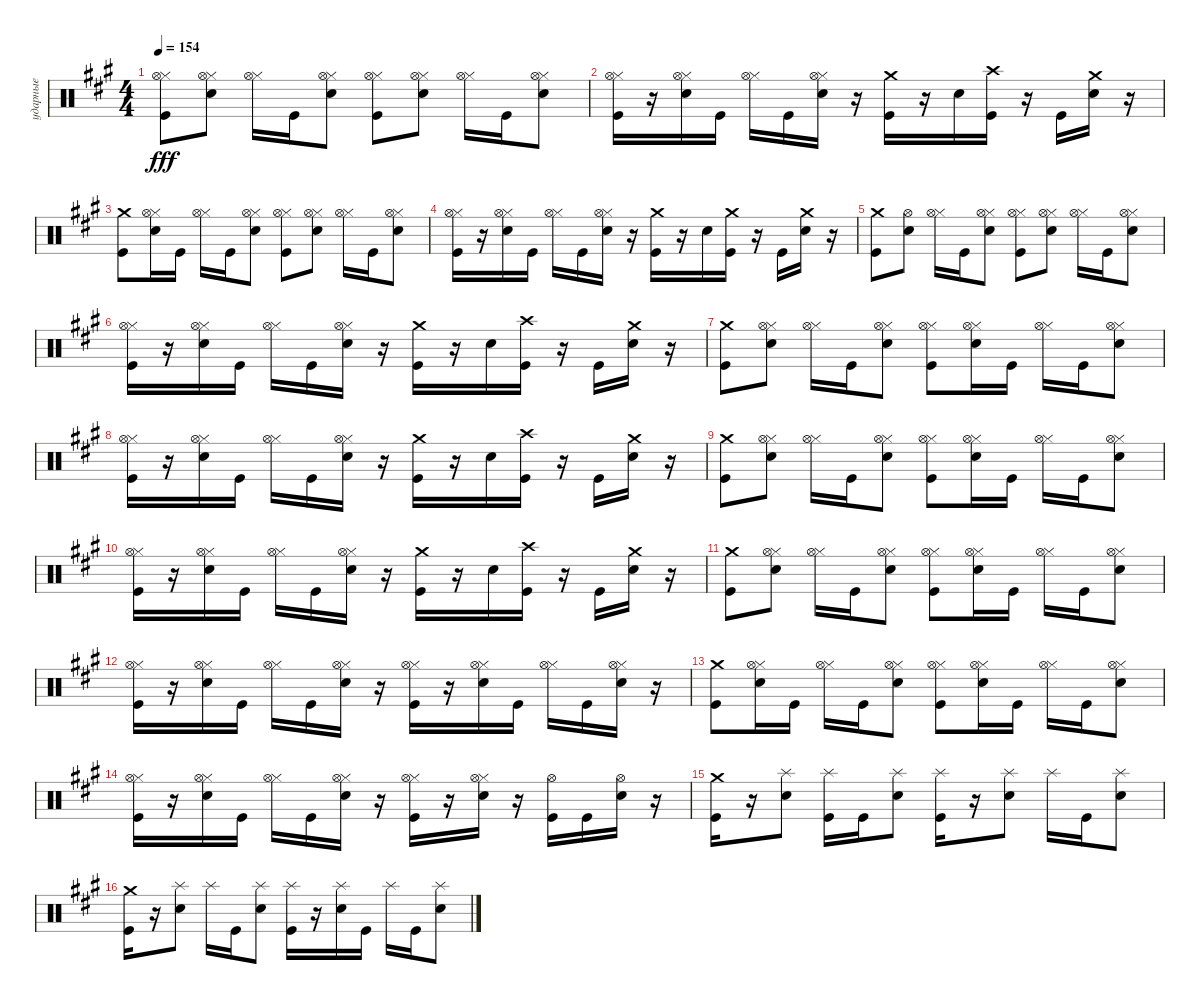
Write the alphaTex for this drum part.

\track ("ударные" "ударные") {instrument percussion}
\staff {score}
\articulation defaults
\ts (4 4)
\tempo 154
\clef neutral
\ks f#minor
("Hi-Hat (closed)" "Kick (hit)" "Hi-Hat (open)").8{dy fff} ("Snare (hit) 2" "Hi-Hat (closed)" "Hi-Hat (open)").8 ("Hi-Hat (closed)" "Hi-Hat (open)").16 "Kick (hit)".16 ("Snare (hit) 2" "Hi-Hat (closed)" "Hi-Hat (open)").8 ("Hi-Hat (closed)" "Kick (hit)" "Hi-Hat (open)").8 ("Snare (hit) 2" "Hi-Hat (closed)" "Hi-Hat (open)").8 ("Hi-Hat (closed)" "Hi-Hat (open)").16 "Kick (hit)".16 ("Snare (hit) 2" "Hi-Hat (closed)" "Hi-Hat (open)").8 |
("Hi-Hat (closed)" "Kick (hit)" "Hi-Hat (open)").16 r.16 ("Hi-Hat (closed)" "Snare (hit) 2" "Hi-Hat (open)").16 "Kick (hit)".16 ("Hi-Hat (closed)" "Hi-Hat (open)").16 "Kick (hit)".16 ("Hi-Hat (closed)" "Snare (hit) 2" "Hi-Hat (open)").16 r.16 ("Crash medium (hit)" "Kick (hit)").16 r.16 "Snare (hit) 2".16 ("Kick (hit)" "Crash high (hit)").16 r.16 "Kick (hit)".16 ("Crash medium (hit)" "Snare (hit) 2").16 r.16 |
("Crash medium (hit)" "Kick (hit)").8 ("Hi-Hat (closed)" "Snare (hit) 2" "Hi-Hat (open)").16 "Kick (hit)".16 ("Hi-Hat (closed)" "Hi-Hat (open)").16 "Kick (hit)".16 ("Hi-Hat (closed)" "Snare (hit) 2" "Hi-Hat (open)").8 ("Hi-Hat (closed)" "Kick (hit)" "Hi-Hat (open)").8 ("Snare (hit) 2" "Hi-Hat (closed)" "Hi-Hat (open)").8 ("Hi-Hat (closed)" "Hi-Hat (open)").16 "Kick (hit)".16 ("Hi-Hat (closed)" "Snare (hit) 2" "Hi-Hat (open)").8 |
("Hi-Hat (closed)" "Kick (hit)" "Hi-Hat (open)").16 r.16 ("Hi-Hat (closed)" "Snare (hit) 2" "Hi-Hat (open)").16 "Kick (hit)".16 ("Hi-Hat (closed)" "Hi-Hat (open)").16 "Kick (hit)".16 ("Hi-Hat (closed)" "Snare (hit) 2" "Hi-Hat (open)").16 r.16 ("Crash medium (hit)" "Kick (hit)").16 r.16 "Snare (hit) 2".16 ("Crash medium (hit)" "Kick (hit)").16 r.16 "Kick (hit)".16 ("Crash medium (hit)" "Snare (hit) 2").16 r.16 |
("Crash medium (hit)" "Kick (hit)").8 ("Snare (hit) 2" "Hi-Hat (open)").8 ("Hi-Hat (closed)" "Hi-Hat (open)").16 "Kick (hit)".16 ("Snare (hit) 2" "Hi-Hat (closed)" "Hi-Hat (open)").8 ("Hi-Hat (closed)" "Kick (hit)" "Hi-Hat (open)").8 ("Snare (hit) 2" "Hi-Hat (closed)" "Hi-Hat (open)").8 ("Hi-Hat (closed)" "Hi-Hat (open)").16 "Kick (hit)".16 ("Snare (hit) 2" "Hi-Hat (closed)" "Hi-Hat (open)").8 |
("Hi-Hat (closed)" "Kick (hit)" "Hi-Hat (open)").16 r.16 ("Hi-Hat (closed)" "Snare (hit) 2" "Hi-Hat (open)").16 "Kick (hit)".16 ("Hi-Hat (closed)" "Hi-Hat (open)").16 "Kick (hit)".16 ("Hi-Hat (closed)" "Snare (hit) 2" "Hi-Hat (open)").16 r.16 ("Crash medium (hit)" "Kick (hit)").16 r.16 "Snare (hit) 2".16 ("Kick (hit)" "Crash high (hit)").16 r.16 "Kick (hit)".16 ("Crash medium (hit)" "Snare (hit) 2").16 r.16 |
("Crash medium (hit)" "Kick (hit)").8 ("Snare (hit) 2" "Hi-Hat (closed)" "Hi-Hat (open)").8 ("Hi-Hat (closed)" "Hi-Hat (open)").16 "Kick (hit)".16 ("Snare (hit) 2" "Hi-Hat (closed)" "Hi-Hat (open)").8 ("Kick (hit)" "Hi-Hat (closed)" "Hi-Hat (open)").8 ("Snare (hit) 2" "Hi-Hat (closed)" "Hi-Hat (open)").16 "Kick (hit)".16 ("Hi-Hat (closed)" "Hi-Hat (open)").16 "Kick (hit)".16 ("Snare (hit) 2" "Hi-Hat (closed)" "Hi-Hat (open)").8 |
("Hi-Hat (closed)" "Kick (hit)" "Hi-Hat (open)").16 r.16 ("Hi-Hat (closed)" "Snare (hit) 2" "Hi-Hat (open)").16 "Kick (hit)".16 ("Hi-Hat (closed)" "Hi-Hat (open)").16 "Kick (hit)".16 ("Hi-Hat (closed)" "Snare (hit) 2" "Hi-Hat (open)").16 r.16 ("Crash medium (hit)" "Kick (hit)").16 r.16 "Snare (hit) 2".16 ("Kick (hit)" "Crash high (hit)").16 r.16 "Kick (hit)".16 ("Crash medium (hit)" "Snare (hit) 2").16 r.16 |
("Crash medium (hit)" "Kick (hit)").8 ("Snare (hit) 2" "Hi-Hat (closed)" "Hi-Hat (open)").8 ("Hi-Hat (closed)" "Hi-Hat (open)").16 "Kick (hit)".16 ("Snare (hit) 2" "Hi-Hat (closed)" "Hi-Hat (open)").8 ("Kick (hit)" "Hi-Hat (closed)" "Hi-Hat (open)").8 ("Snare (hit) 2" "Hi-Hat (closed)" "Hi-Hat (open)").16 "Kick (hit)".16 ("Hi-Hat (closed)" "Hi-Hat (open)").16 "Kick (hit)".16 ("Snare (hit) 2" "Hi-Hat (closed)" "Hi-Hat (open)").8 |
("Hi-Hat (closed)" "Kick (hit)" "Hi-Hat (open)").16 r.16 ("Hi-Hat (closed)" "Snare (hit) 2" "Hi-Hat (open)").16 "Kick (hit)".16 ("Hi-Hat (closed)" "Hi-Hat (open)").16 "Kick (hit)".16 ("Hi-Hat (closed)" "Snare (hit) 2" "Hi-Hat (open)").16 r.16 ("Crash medium (hit)" "Kick (hit)").16 r.16 "Snare (hit) 2".16 ("Kick (hit)" "Crash high (hit)").16 r.16 "Kick (hit)".16 ("Crash medium (hit)" "Snare (hit) 2").16 r.16 |
("Crash medium (hit)" "Kick (hit)").8 ("Snare (hit) 2" "Hi-Hat (closed)" "Hi-Hat (open)").8 ("Hi-Hat (closed)" "Hi-Hat (open)").16 "Kick (hit)".16 ("Snare (hit) 2" "Hi-Hat (closed)" "Hi-Hat (open)").8 ("Kick (hit)" "Hi-Hat (closed)" "Hi-Hat (open)").8 ("Snare (hit) 2" "Hi-Hat (closed)" "Hi-Hat (open)").16 "Kick (hit)".16 ("Hi-Hat (closed)" "Hi-Hat (open)").16 "Kick (hit)".16 ("Snare (hit) 2" "Hi-Hat (closed)" "Hi-Hat (open)").8 |
("Hi-Hat (closed)" "Kick (hit)" "Hi-Hat (open)").16 r.16 ("Hi-Hat (closed)" "Snare (hit) 2" "Hi-Hat (open)").16 "Kick (hit)".16 ("Hi-Hat (closed)" "Hi-Hat (open)").16 "Kick (hit)".16 ("Hi-Hat (closed)" "Snare (hit) 2" "Hi-Hat (open)").16 r.16 ("Hi-Hat (closed)" "Kick (hit)" "Hi-Hat (open)").16 r.16 ("Hi-Hat (closed)" "Snare (hit) 2" "Hi-Hat (open)").16 "Kick (hit)".16 ("Hi-Hat (closed)" "Hi-Hat (open)").16 "Kick (hit)".16 ("Hi-Hat (closed)" "Snare (hit) 2" "Hi-Hat (open)").16 r.16 |
("Crash medium (hit)" "Kick (hit)").8 ("Hi-Hat (closed)" "Snare (hit) 2" "Hi-Hat (open)").16 "Kick (hit)".16 ("Hi-Hat (closed)" "Hi-Hat (open)").16 "Kick (hit)".16 ("Hi-Hat (closed)" "Snare (hit) 2" "Hi-Hat (open)").8 ("Kick (hit)" "Hi-Hat (closed)" "Hi-Hat (open)").8 ("Snare (hit) 2" "Hi-Hat (closed)" "Hi-Hat (open)").16 "Kick (hit)".16 ("Hi-Hat (closed)" "Hi-Hat (open)").16 "Kick (hit)".16 ("Snare (hit) 2" "Hi-Hat (closed)" "Hi-Hat (open)").8 |
("Hi-Hat (closed)" "Kick (hit)" "Hi-Hat (open)").16 r.16 ("Hi-Hat (closed)" "Snare (hit) 2" "Hi-Hat (open)").16 "Kick (hit)".16 ("Hi-Hat (closed)" "Hi-Hat (open)").16 "Kick (hit)".16 ("Hi-Hat (closed)" "Snare (hit) 2" "Hi-Hat (open)").16 r.16 ("Hi-Hat (closed)" "Kick (hit)" "Hi-Hat (open)").16 r.16 ("Hi-Hat (closed)" "Snare (hit) 2" "Hi-Hat (open)").16 r.16 ("Kick (hit)" "Hi-Hat (open)").16 "Kick (hit)".16 ("Snare (hit) 2" "Hi-Hat (open)").16 r.16 |
("Kick (hit)" "Crash medium (hit)").16 r.16 ("Snare (hit) 2" "Splash (hit)").8 ("Kick (hit)" "Splash (hit)").16 "Kick (hit)".16 ("Snare (hit) 2" "Splash (hit)").8 ("Kick (hit)" "Splash (hit)").16 r.16 ("Snare (hit) 2" "Splash (hit)").8 "Splash (hit)".16 "Kick (hit)".16 ("Snare (hit) 2" "Splash (hit)").8 |
("Kick (hit)" "Crash medium (hit)").16 r.16 ("Snare (hit) 2" "Splash (hit)").8 "Splash (hit)".16 "Kick (hit)".16 ("Snare (hit) 2" "Splash (hit)").8 ("Kick (hit)" "Splash (hit)").16 r.16 ("Snare (hit) 2" "Splash (hit)").16 "Kick (hit)".16 "Splash (hit)".16 "Kick (hit)".16 ("Snare (hit) 2" "Splash (hit)").8
